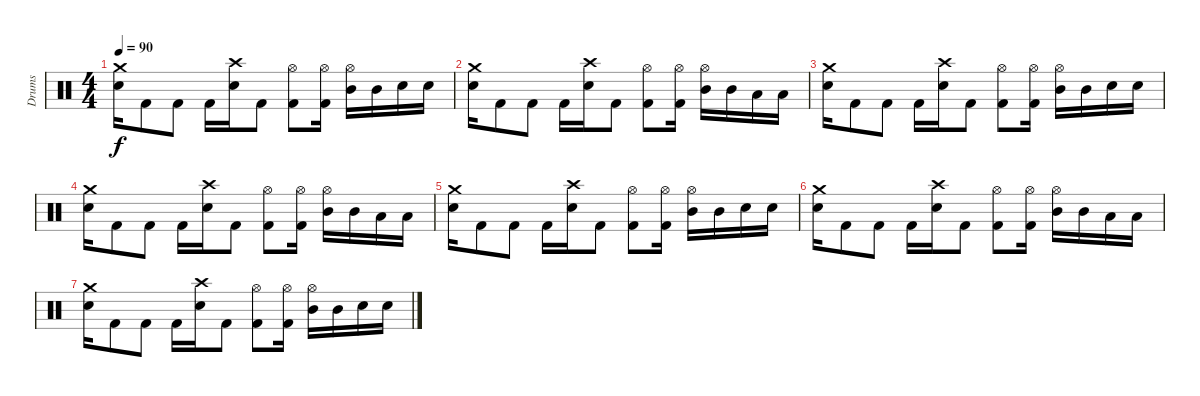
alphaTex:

\track ("Drums" "Drums") {instrument percussion}
\staff {score}
\articulation defaults
\ts (4 4)
\tempo 90
\clef neutral
\ks c
("Crash medium (hit)" "Electric Snare (hit)").16{dy f} "Kick (hit) 2".8 "Kick (hit) 2".8 "Kick (hit) 2".16 ("Crash high (hit)" "Electric Snare (hit)").16 "Kick (hit) 2".8 ("Hi-Hat (open)" "Kick (hit) 2").8 ("Hi-Hat (open)" "Kick (hit) 2").16 ("Hi-Hat (open)" "Mid Tom (hit)").16 "Mid Tom (hit)".16 "Electric Snare (hit)".16 "Electric Snare (hit)".16 |
("Crash medium (hit)" "Electric Snare (hit)").16 "Kick (hit) 2".8 "Kick (hit) 2".8 "Kick (hit) 2".16 ("Crash high (hit)" "Electric Snare (hit)").16 "Kick (hit) 2".8 ("Hi-Hat (open)" "Kick (hit) 2").8 ("Hi-Hat (open)" "Kick (hit) 2").16 ("Hi-Hat (open)" "Mid Tom (hit)").16 "Mid Tom (hit)".16 "Low Tom (hit)".16 "Low Tom (hit)".16 |
("Crash medium (hit)" "Electric Snare (hit)").16 "Kick (hit) 2".8 "Kick (hit) 2".8 "Kick (hit) 2".16 ("Crash high (hit)" "Electric Snare (hit)").16 "Kick (hit) 2".8 ("Hi-Hat (open)" "Kick (hit) 2").8 ("Hi-Hat (open)" "Kick (hit) 2").16 ("Hi-Hat (open)" "Mid Tom (hit)").16 "Mid Tom (hit)".16 "Electric Snare (hit)".16 "Electric Snare (hit)".16 |
("Crash medium (hit)" "Electric Snare (hit)").16 "Kick (hit) 2".8 "Kick (hit) 2".8 "Kick (hit) 2".16 ("Crash high (hit)" "Electric Snare (hit)").16 "Kick (hit) 2".8 ("Hi-Hat (open)" "Kick (hit) 2").8 ("Hi-Hat (open)" "Kick (hit) 2").16 ("Hi-Hat (open)" "Mid Tom (hit)").16 "Mid Tom (hit)".16 "Low Tom (hit)".16 "Low Tom (hit)".16 |
("Crash medium (hit)" "Electric Snare (hit)").16 "Kick (hit) 2".8 "Kick (hit) 2".8 "Kick (hit) 2".16 ("Crash high (hit)" "Electric Snare (hit)").16 "Kick (hit) 2".8 ("Hi-Hat (open)" "Kick (hit) 2").8 ("Hi-Hat (open)" "Kick (hit) 2").16 ("Hi-Hat (open)" "Mid Tom (hit)").16 "Mid Tom (hit)".16 "Electric Snare (hit)".16 "Electric Snare (hit)".16 |
("Crash medium (hit)" "Electric Snare (hit)").16 "Kick (hit) 2".8 "Kick (hit) 2".8 "Kick (hit) 2".16 ("Crash high (hit)" "Electric Snare (hit)").16 "Kick (hit) 2".8 ("Hi-Hat (open)" "Kick (hit) 2").8 ("Hi-Hat (open)" "Kick (hit) 2").16 ("Hi-Hat (open)" "Mid Tom (hit)").16 "Mid Tom (hit)".16 "Low Tom (hit)".16 "Low Tom (hit)".16 |
("Crash medium (hit)" "Electric Snare (hit)").16 "Kick (hit) 2".8 "Kick (hit) 2".8 "Kick (hit) 2".16 ("Crash high (hit)" "Electric Snare (hit)").16 "Kick (hit) 2".8 ("Hi-Hat (open)" "Kick (hit) 2").8 ("Hi-Hat (open)" "Kick (hit) 2").16 ("Hi-Hat (open)" "Mid Tom (hit)").16 "Mid Tom (hit)".16 "Electric Snare (hit)".16 "Electric Snare (hit)".16
